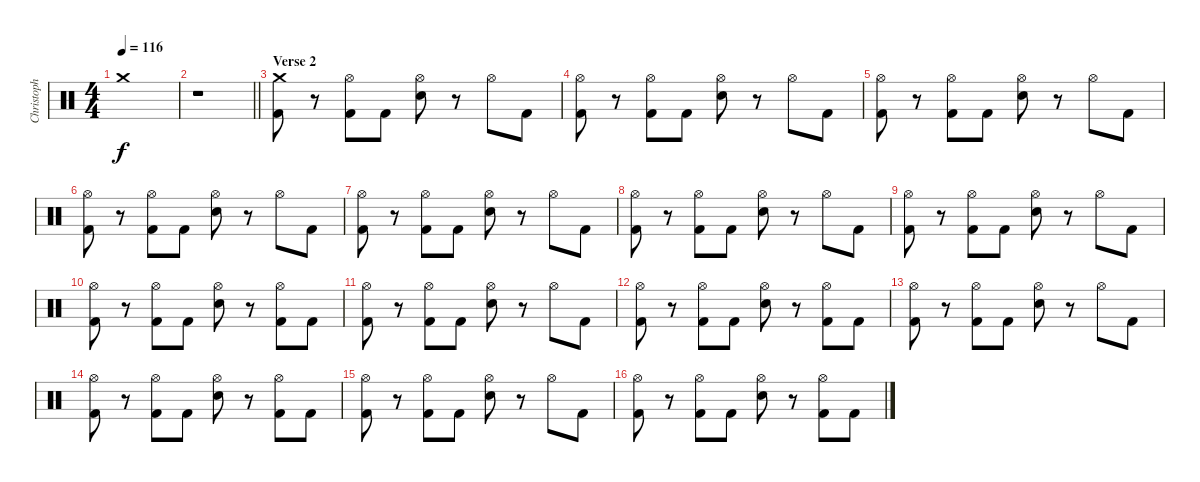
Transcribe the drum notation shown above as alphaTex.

\track ("Christoph Schneider" "Christoph ") {instrument percussion}
\staff {score}
\articulation defaults
\ts (4 4)
\tempo 116
\clef neutral
\ks c "Crash medium (hit)".1{dy f}
|
\barLineRight lightlight
r.1 |
\section ("" "Verse 2")
("Crash medium (hit)" "Kick (hit) 2").8 r.8 ("Hi-Hat (open)" "Kick (hit) 2").8 "Kick (hit) 2".8 ("Hi-Hat (open)" "Snare (hit) 2").8 r.8 "Hi-Hat (open)".8 "Kick (hit) 2".8 |
("Hi-Hat (open)" "Kick (hit) 2").8 r.8 ("Hi-Hat (open)" "Kick (hit) 2").8 "Kick (hit) 2".8 ("Hi-Hat (open)" "Snare (hit) 2").8 r.8 "Hi-Hat (open)".8 "Kick (hit) 2".8 |
("Hi-Hat (open)" "Kick (hit) 2").8 r.8 ("Hi-Hat (open)" "Kick (hit) 2").8 "Kick (hit) 2".8 ("Hi-Hat (open)" "Snare (hit) 2").8 r.8 "Hi-Hat (open)".8 "Kick (hit) 2".8 |
("Hi-Hat (open)" "Kick (hit) 2").8 r.8 ("Hi-Hat (open)" "Kick (hit) 2").8 "Kick (hit) 2".8 ("Hi-Hat (open)" "Snare (hit) 2").8 r.8 "Hi-Hat (open)".8 "Kick (hit) 2".8 |
("Hi-Hat (open)" "Kick (hit) 2").8 r.8 ("Hi-Hat (open)" "Kick (hit) 2").8 "Kick (hit) 2".8 ("Hi-Hat (open)" "Snare (hit) 2").8 r.8 "Hi-Hat (open)".8 "Kick (hit) 2".8 |
("Hi-Hat (open)" "Kick (hit) 2").8 r.8 ("Hi-Hat (open)" "Kick (hit) 2").8 "Kick (hit) 2".8 ("Hi-Hat (open)" "Snare (hit) 2").8 r.8 "Hi-Hat (open)".8 "Kick (hit) 2".8 |
("Hi-Hat (open)" "Kick (hit) 2").8 r.8 ("Hi-Hat (open)" "Kick (hit) 2").8 "Kick (hit) 2".8 ("Hi-Hat (open)" "Snare (hit) 2").8 r.8 "Hi-Hat (open)".8 "Kick (hit) 2".8 |
("Hi-Hat (open)" "Kick (hit) 2").8 r.8 ("Hi-Hat (open)" "Kick (hit) 2").8 "Kick (hit) 2".8 ("Hi-Hat (open)" "Snare (hit) 2").8 r.8 ("Hi-Hat (open)" "Kick (hit) 2").8 "Kick (hit) 2".8 |
("Hi-Hat (open)" "Kick (hit) 2").8 r.8 ("Hi-Hat (open)" "Kick (hit) 2").8 "Kick (hit) 2".8 ("Hi-Hat (open)" "Snare (hit) 2").8 r.8 "Hi-Hat (open)".8 "Kick (hit) 2".8 |
("Hi-Hat (open)" "Kick (hit) 2").8 r.8 ("Hi-Hat (open)" "Kick (hit) 2").8 "Kick (hit) 2".8 ("Hi-Hat (open)" "Snare (hit) 2").8 r.8 ("Hi-Hat (open)" "Kick (hit) 2").8 "Kick (hit) 2".8 |
("Hi-Hat (open)" "Kick (hit) 2").8 r.8 ("Hi-Hat (open)" "Kick (hit) 2").8 "Kick (hit) 2".8 ("Hi-Hat (open)" "Snare (hit) 2").8 r.8 "Hi-Hat (open)".8 "Kick (hit) 2".8 |
("Hi-Hat (open)" "Kick (hit) 2").8 r.8 ("Hi-Hat (open)" "Kick (hit) 2").8 "Kick (hit) 2".8 ("Hi-Hat (open)" "Snare (hit) 2").8 r.8 ("Hi-Hat (open)" "Kick (hit) 2").8 "Kick (hit) 2".8 |
("Hi-Hat (open)" "Kick (hit) 2").8 r.8 ("Hi-Hat (open)" "Kick (hit) 2").8 "Kick (hit) 2".8 ("Hi-Hat (open)" "Snare (hit) 2").8 r.8 "Hi-Hat (open)".8 "Kick (hit) 2".8 |
("Hi-Hat (open)" "Kick (hit) 2").8 r.8 ("Hi-Hat (open)" "Kick (hit) 2").8 "Kick (hit) 2".8 ("Hi-Hat (open)" "Snare (hit) 2").8 r.8 ("Hi-Hat (open)" "Kick (hit) 2").8 "Kick (hit) 2".8
